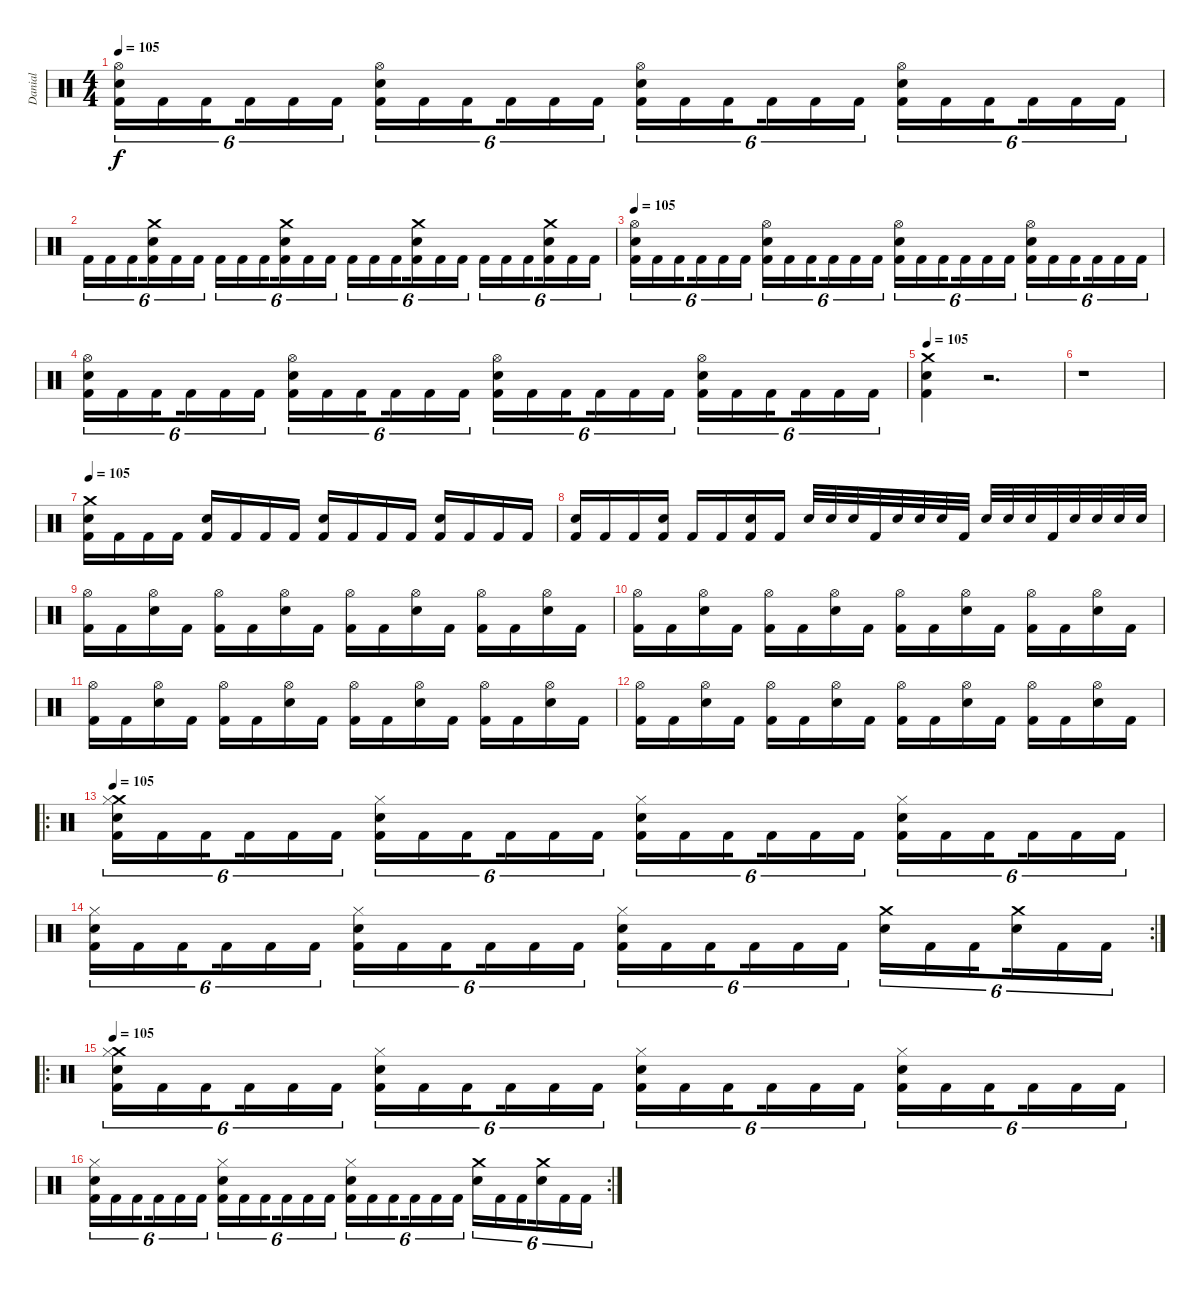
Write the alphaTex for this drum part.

\track ("Danial" "Danial") {instrument percussion}
\staff {score}
\articulation defaults
\ts (4 4)
\tempo 105
\clef neutral
\ks c
("Hi-Hat (open)" "Snare (hit) 2" "Kick (hit) 2").16{tu (6 4) dy f} "Kick (hit) 2".16{tu (6 4)} "Kick (hit) 2".16{tu (6 4) beam splitsecondary} "Kick (hit) 2".16{tu (6 4)} "Kick (hit) 2".16{tu (6 4)} "Kick (hit) 2".16{tu (6 4)} ("Hi-Hat (open)" "Snare (hit) 2" "Kick (hit) 2").16{tu (6 4)} "Kick (hit) 2".16{tu (6 4)} "Kick (hit) 2".16{tu (6 4) beam splitsecondary} "Kick (hit) 2".16{tu (6 4)} "Kick (hit) 2".16{tu (6 4)} "Kick (hit) 2".16{tu (6 4)} ("Hi-Hat (open)" "Snare (hit) 2" "Kick (hit) 2").16{tu (6 4)} "Kick (hit) 2".16{tu (6 4)} "Kick (hit) 2".16{tu (6 4) beam splitsecondary} "Kick (hit) 2".16{tu (6 4)} "Kick (hit) 2".16{tu (6 4)} "Kick (hit) 2".16{tu (6 4)} ("Hi-Hat (open)" "Snare (hit) 2" "Kick (hit) 2").16{tu (6 4)} "Kick (hit) 2".16{tu (6 4)} "Kick (hit) 2".16{tu (6 4) beam splitsecondary} "Kick (hit) 2".16{tu (6 4)} "Kick (hit) 2".16{tu (6 4)} "Kick (hit) 2".16{tu (6 4)} |
"Kick (hit) 2".16{tu (6 4)} "Kick (hit) 2".16{tu (6 4)} "Kick (hit) 2".16{tu (6 4) beam splitsecondary} ("Crash medium (hit)" "Snare (hit) 2" "Kick (hit) 2").16{tu (6 4)} "Kick (hit) 2".16{tu (6 4)} "Kick (hit) 2".16{tu (6 4)} "Kick (hit) 2".16{tu (6 4)} "Kick (hit) 2".16{tu (6 4)} "Kick (hit) 2".16{tu (6 4) beam splitsecondary} ("Crash medium (hit)" "Snare (hit) 2" "Kick (hit) 2").16{tu (6 4)} "Kick (hit) 2".16{tu (6 4)} "Kick (hit) 2".16{tu (6 4)} "Kick (hit) 2".16{tu (6 4)} "Kick (hit) 2".16{tu (6 4)} "Kick (hit) 2".16{tu (6 4) beam splitsecondary} ("Crash medium (hit)" "Snare (hit) 2" "Kick (hit) 2").16{tu (6 4)} "Kick (hit) 2".16{tu (6 4)} "Kick (hit) 2".16{tu (6 4)} "Kick (hit) 2".16{tu (6 4)} "Kick (hit) 2".16{tu (6 4)} "Kick (hit) 2".16{tu (6 4) beam splitsecondary} ("Snare (hit) 2" "Crash medium (hit)" "Kick (hit) 2").16{tu (6 4)} "Kick (hit) 2".16{tu (6 4)} "Kick (hit) 2".16{tu (6 4)} |
\tempo 105
("Hi-Hat (open)" "Snare (hit) 2" "Kick (hit) 2").16{tu (6 4)} "Kick (hit) 2".16{tu (6 4)} "Kick (hit) 2".16{tu (6 4) beam splitsecondary} "Kick (hit) 2".16{tu (6 4)} "Kick (hit) 2".16{tu (6 4)} "Kick (hit) 2".16{tu (6 4)} ("Hi-Hat (open)" "Snare (hit) 2" "Kick (hit) 2").16{tu (6 4)} "Kick (hit) 2".16{tu (6 4)} "Kick (hit) 2".16{tu (6 4) beam splitsecondary} "Kick (hit) 2".16{tu (6 4)} "Kick (hit) 2".16{tu (6 4)} "Kick (hit) 2".16{tu (6 4)} ("Hi-Hat (open)" "Snare (hit) 2" "Kick (hit) 2").16{tu (6 4)} "Kick (hit) 2".16{tu (6 4)} "Kick (hit) 2".16{tu (6 4) beam splitsecondary} "Kick (hit) 2".16{tu (6 4)} "Kick (hit) 2".16{tu (6 4)} "Kick (hit) 2".16{tu (6 4)} ("Hi-Hat (open)" "Snare (hit) 2" "Kick (hit) 2").16{tu (6 4)} "Kick (hit) 2".16{tu (6 4)} "Kick (hit) 2".16{tu (6 4) beam splitsecondary} "Kick (hit) 2".16{tu (6 4)} "Kick (hit) 2".16{tu (6 4)} "Kick (hit) 2".16{tu (6 4)} |
("Hi-Hat (open)" "Snare (hit) 2" "Kick (hit) 2").16{tu (6 4)} "Kick (hit) 2".16{tu (6 4)} "Kick (hit) 2".16{tu (6 4) beam splitsecondary} "Kick (hit) 2".16{tu (6 4)} "Kick (hit) 2".16{tu (6 4)} "Kick (hit) 2".16{tu (6 4)} ("Hi-Hat (open)" "Snare (hit) 2" "Kick (hit) 2").16{tu (6 4)} "Kick (hit) 2".16{tu (6 4)} "Kick (hit) 2".16{tu (6 4) beam splitsecondary} "Kick (hit) 2".16{tu (6 4)} "Kick (hit) 2".16{tu (6 4)} "Kick (hit) 2".16{tu (6 4)} ("Hi-Hat (open)" "Snare (hit) 2" "Kick (hit) 2").16{tu (6 4)} "Kick (hit) 2".16{tu (6 4)} "Kick (hit) 2".16{tu (6 4) beam splitsecondary} "Kick (hit) 2".16{tu (6 4)} "Kick (hit) 2".16{tu (6 4)} "Kick (hit) 2".16{tu (6 4)} ("Hi-Hat (open)" "Snare (hit) 2" "Kick (hit) 2").16{tu (6 4)} "Kick (hit) 2".16{tu (6 4)} "Kick (hit) 2".16{tu (6 4) beam splitsecondary} "Kick (hit) 2".16{tu (6 4)} "Kick (hit) 2".16{tu (6 4)} "Kick (hit) 2".16{tu (6 4)} |
\tempo 105
("Crash medium (hit)" "Snare (hit) 2" "Kick (hit) 2").4 r.2{d} |
r.1 |
\tempo 105
("Crash medium (hit)" "Snare (hit) 2" "Kick (hit) 2").16 "Kick (hit) 2".16 "Kick (hit) 2".16 "Kick (hit) 2".16 ("Snare (hit) 2" "Kick (hit) 2").16 "Kick (hit) 2".16 "Kick (hit) 2".16 "Kick (hit) 2".16 ("Snare (hit) 2" "Kick (hit) 2").16 "Kick (hit) 2".16 "Kick (hit) 2".16 "Kick (hit) 2".16 ("Snare (hit) 2" "Kick (hit) 2").16 "Kick (hit) 2".16 "Kick (hit) 2".16 "Kick (hit) 2".16 |
("Snare (hit) 2" "Kick (hit) 2").16 "Kick (hit) 2".16 "Kick (hit) 2".16 ("Snare (hit) 2" "Kick (hit) 2").16 "Kick (hit) 2".16 "Kick (hit) 2".16 ("Snare (hit) 2" "Kick (hit) 2").16 "Kick (hit) 2".16 "Snare (hit) 2".32 "Snare (hit) 2".32 "Snare (hit) 2".32 "Kick (hit) 2".32 "Snare (hit) 2".32 "Snare (hit) 2".32 "Snare (hit) 2".32 "Kick (hit) 2".32 "Snare (hit) 2".32 "Snare (hit) 2".32 "Snare (hit) 2".32 "Kick (hit) 2".32 "Snare (hit) 2".32 "Snare (hit) 2".32 "Snare (hit) 2".32 "Snare (hit) 2".32 |
("Hi-Hat (open)" "Kick (hit) 2").16 "Kick (hit) 2".16 ("Hi-Hat (open)" "Snare (hit) 2").16 "Kick (hit) 2".16 ("Hi-Hat (open)" "Kick (hit) 2").16 "Kick (hit) 2".16 ("Hi-Hat (open)" "Snare (hit) 2").16 "Kick (hit) 2".16 ("Hi-Hat (open)" "Kick (hit) 2").16 "Kick (hit) 2".16 ("Hi-Hat (open)" "Snare (hit) 2").16 "Kick (hit) 2".16 ("Hi-Hat (open)" "Kick (hit) 2").16 "Kick (hit) 2".16 ("Hi-Hat (open)" "Snare (hit) 2").16 "Kick (hit) 2".16 |
("Hi-Hat (open)" "Kick (hit) 2").16 "Kick (hit) 2".16 ("Hi-Hat (open)" "Snare (hit) 2").16 "Kick (hit) 2".16 ("Hi-Hat (open)" "Kick (hit) 2").16 "Kick (hit) 2".16 ("Hi-Hat (open)" "Snare (hit) 2").16 "Kick (hit) 2".16 ("Hi-Hat (open)" "Kick (hit) 2").16 "Kick (hit) 2".16 ("Hi-Hat (open)" "Snare (hit) 2").16 "Kick (hit) 2".16 ("Hi-Hat (open)" "Kick (hit) 2").16 "Kick (hit) 2".16 ("Hi-Hat (open)" "Snare (hit) 2").16 "Kick (hit) 2".16 |
("Hi-Hat (open)" "Kick (hit) 2").16 "Kick (hit) 2".16 ("Hi-Hat (open)" "Snare (hit) 2").16 "Kick (hit) 2".16 ("Hi-Hat (open)" "Kick (hit) 2").16 "Kick (hit) 2".16 ("Hi-Hat (open)" "Snare (hit) 2").16 "Kick (hit) 2".16 ("Hi-Hat (open)" "Kick (hit) 2").16 "Kick (hit) 2".16 ("Hi-Hat (open)" "Snare (hit) 2").16 "Kick (hit) 2".16 ("Hi-Hat (open)" "Kick (hit) 2").16 "Kick (hit) 2".16 ("Hi-Hat (open)" "Snare (hit) 2").16 "Kick (hit) 2".16 |
("Hi-Hat (open)" "Kick (hit) 2").16 "Kick (hit) 2".16 ("Hi-Hat (open)" "Snare (hit) 2").16 "Kick (hit) 2".16 ("Hi-Hat (open)" "Kick (hit) 2").16 "Kick (hit) 2".16 ("Hi-Hat (open)" "Snare (hit) 2").16 "Kick (hit) 2".16 ("Hi-Hat (open)" "Kick (hit) 2").16 "Kick (hit) 2".16 ("Hi-Hat (open)" "Snare (hit) 2").16 "Kick (hit) 2".16 ("Hi-Hat (open)" "Kick (hit) 2").16 "Kick (hit) 2".16 ("Hi-Hat (open)" "Snare (hit) 2").16 "Kick (hit) 2".16 |
\ro
\tempo 105
("Crash medium (hit)" "Hi-Hat (closed)" "Snare (hit) 2" "Kick (hit) 2").16{tu (6 4)} "Kick (hit) 2".16{tu (6 4)} "Kick (hit) 2".16{tu (6 4) beam splitsecondary} "Kick (hit) 2".16{tu (6 4)} "Kick (hit) 2".16{tu (6 4)} "Kick (hit) 2".16{tu (6 4)} ("Hi-Hat (closed)" "Snare (hit) 2" "Kick (hit) 2").16{tu (6 4)} "Kick (hit) 2".16{tu (6 4)} "Kick (hit) 2".16{tu (6 4) beam splitsecondary} "Kick (hit) 2".16{tu (6 4)} "Kick (hit) 2".16{tu (6 4)} "Kick (hit) 2".16{tu (6 4)} ("Hi-Hat (closed)" "Snare (hit) 2" "Kick (hit) 2").16{tu (6 4)} "Kick (hit) 2".16{tu (6 4)} "Kick (hit) 2".16{tu (6 4) beam splitsecondary} "Kick (hit) 2".16{tu (6 4)} "Kick (hit) 2".16{tu (6 4)} "Kick (hit) 2".16{tu (6 4)} ("Hi-Hat (closed)" "Snare (hit) 2" "Kick (hit) 2").16{tu (6 4)} "Kick (hit) 2".16{tu (6 4)} "Kick (hit) 2".16{tu (6 4) beam splitsecondary} "Kick (hit) 2".16{tu (6 4)} "Kick (hit) 2".16{tu (6 4)} "Kick (hit) 2".16{tu (6 4)} |
\rc 2
("Hi-Hat (closed)" "Snare (hit) 2" "Kick (hit) 2").16{tu (6 4)} "Kick (hit) 2".16{tu (6 4)} "Kick (hit) 2".16{tu (6 4) beam splitsecondary} "Kick (hit) 2".16{tu (6 4)} "Kick (hit) 2".16{tu (6 4)} "Kick (hit) 2".16{tu (6 4)} ("Hi-Hat (closed)" "Snare (hit) 2" "Kick (hit) 2").16{tu (6 4)} "Kick (hit) 2".16{tu (6 4)} "Kick (hit) 2".16{tu (6 4) beam splitsecondary} "Kick (hit) 2".16{tu (6 4)} "Kick (hit) 2".16{tu (6 4)} "Kick (hit) 2".16{tu (6 4)} ("Hi-Hat (closed)" "Snare (hit) 2" "Kick (hit) 2").16{tu (6 4)} "Kick (hit) 2".16{tu (6 4)} "Kick (hit) 2".16{tu (6 4) beam splitsecondary} "Kick (hit) 2".16{tu (6 4)} "Kick (hit) 2".16{tu (6 4)} "Kick (hit) 2".16{tu (6 4)} ("Crash medium (hit)" "Snare (hit) 2").16{tu (6 4)} "Kick (hit) 2".16{tu (6 4)} "Kick (hit) 2".16{tu (6 4) beam splitsecondary} ("Crash medium (hit)" "Snare (hit) 2").16{tu (6 4)} "Kick (hit) 2".16{tu (6 4)} "Kick (hit) 2".16{tu (6 4)} |
\ro
\tempo 105
("Crash medium (hit)" "Hi-Hat (closed)" "Snare (hit) 2" "Kick (hit) 2").16{tu (6 4)} "Kick (hit) 2".16{tu (6 4)} "Kick (hit) 2".16{tu (6 4) beam splitsecondary} "Kick (hit) 2".16{tu (6 4)} "Kick (hit) 2".16{tu (6 4)} "Kick (hit) 2".16{tu (6 4)} ("Hi-Hat (closed)" "Snare (hit) 2" "Kick (hit) 2").16{tu (6 4)} "Kick (hit) 2".16{tu (6 4)} "Kick (hit) 2".16{tu (6 4) beam splitsecondary} "Kick (hit) 2".16{tu (6 4)} "Kick (hit) 2".16{tu (6 4)} "Kick (hit) 2".16{tu (6 4)} ("Hi-Hat (closed)" "Snare (hit) 2" "Kick (hit) 2").16{tu (6 4)} "Kick (hit) 2".16{tu (6 4)} "Kick (hit) 2".16{tu (6 4) beam splitsecondary} "Kick (hit) 2".16{tu (6 4)} "Kick (hit) 2".16{tu (6 4)} "Kick (hit) 2".16{tu (6 4)} ("Hi-Hat (closed)" "Snare (hit) 2" "Kick (hit) 2").16{tu (6 4)} "Kick (hit) 2".16{tu (6 4)} "Kick (hit) 2".16{tu (6 4) beam splitsecondary} "Kick (hit) 2".16{tu (6 4)} "Kick (hit) 2".16{tu (6 4)} "Kick (hit) 2".16{tu (6 4)} |
\rc 2
("Hi-Hat (closed)" "Snare (hit) 2" "Kick (hit) 2").16{tu (6 4)} "Kick (hit) 2".16{tu (6 4)} "Kick (hit) 2".16{tu (6 4) beam splitsecondary} "Kick (hit) 2".16{tu (6 4)} "Kick (hit) 2".16{tu (6 4)} "Kick (hit) 2".16{tu (6 4)} ("Hi-Hat (closed)" "Snare (hit) 2" "Kick (hit) 2").16{tu (6 4)} "Kick (hit) 2".16{tu (6 4)} "Kick (hit) 2".16{tu (6 4) beam splitsecondary} "Kick (hit) 2".16{tu (6 4)} "Kick (hit) 2".16{tu (6 4)} "Kick (hit) 2".16{tu (6 4)} ("Hi-Hat (closed)" "Snare (hit) 2" "Kick (hit) 2").16{tu (6 4)} "Kick (hit) 2".16{tu (6 4)} "Kick (hit) 2".16{tu (6 4) beam splitsecondary} "Kick (hit) 2".16{tu (6 4)} "Kick (hit) 2".16{tu (6 4)} "Kick (hit) 2".16{tu (6 4)} ("Crash medium (hit)" "Snare (hit) 2").16{tu (6 4)} "Kick (hit) 2".16{tu (6 4)} "Kick (hit) 2".16{tu (6 4) beam splitsecondary} ("Crash medium (hit)" "Snare (hit) 2").16{tu (6 4)} "Kick (hit) 2".16{tu (6 4)} "Kick (hit) 2".16{tu (6 4)}
